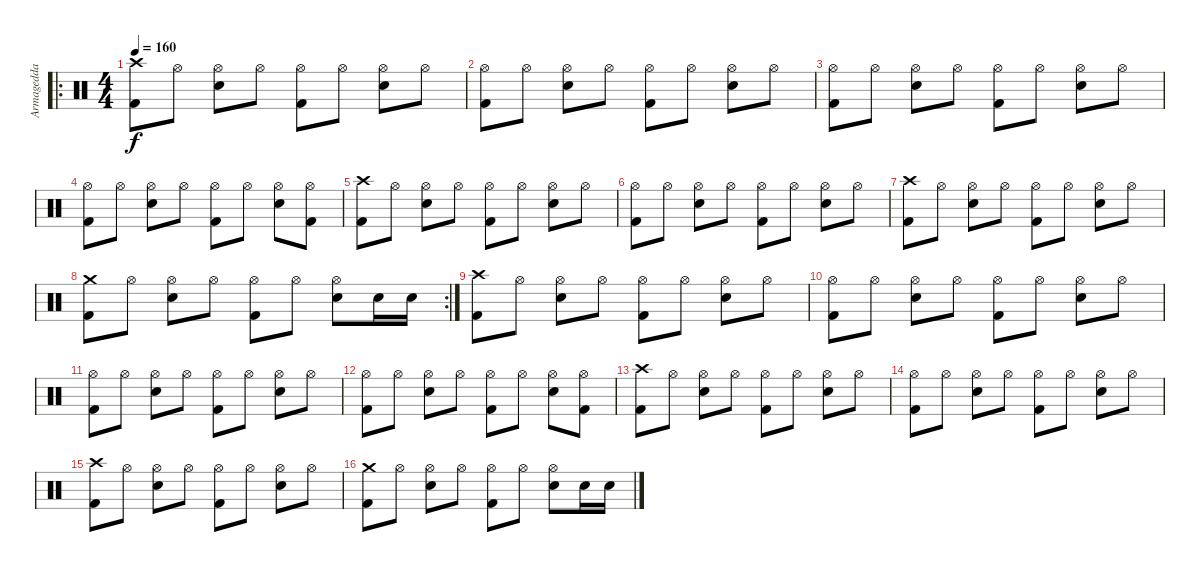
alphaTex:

\track ("Armagedda" "Armagedda") {instrument percussion}
\staff {score}
\articulation defaults
\ro
\ts (4 4)
\tempo 160
\clef neutral
\ks c
("Crash high (hit)" "Kick (hit) 2").8{dy f} "Hi-Hat (open)".8 ("Hi-Hat (open)" "Snare (hit) 2").8 "Hi-Hat (open)".8 ("Hi-Hat (open)" "Kick (hit) 2").8 "Hi-Hat (open)".8 ("Hi-Hat (open)" "Snare (hit) 2").8 "Hi-Hat (open)".8 |
("Hi-Hat (open)" "Kick (hit) 2").8 "Hi-Hat (open)".8 ("Hi-Hat (open)" "Snare (hit) 2").8 "Hi-Hat (open)".8 ("Hi-Hat (open)" "Kick (hit) 2").8 "Hi-Hat (open)".8 ("Hi-Hat (open)" "Snare (hit) 2").8 "Hi-Hat (open)".8 |
("Hi-Hat (open)" "Kick (hit) 2").8 "Hi-Hat (open)".8 ("Hi-Hat (open)" "Snare (hit) 2").8 "Hi-Hat (open)".8 ("Hi-Hat (open)" "Kick (hit) 2").8 "Hi-Hat (open)".8 ("Hi-Hat (open)" "Snare (hit) 2").8 "Hi-Hat (open)".8 |
("Hi-Hat (open)" "Kick (hit) 2").8 "Hi-Hat (open)".8 ("Hi-Hat (open)" "Snare (hit) 2").8 "Hi-Hat (open)".8 ("Hi-Hat (open)" "Kick (hit) 2").8 "Hi-Hat (open)".8 ("Hi-Hat (open)" "Snare (hit) 2").8 ("Hi-Hat (open)" "Kick (hit) 2").8 |
("Crash high (hit)" "Kick (hit) 2").8 "Hi-Hat (open)".8 ("Hi-Hat (open)" "Snare (hit) 2").8 "Hi-Hat (open)".8 ("Hi-Hat (open)" "Kick (hit) 2").8 "Hi-Hat (open)".8 ("Hi-Hat (open)" "Snare (hit) 2").8 "Hi-Hat (open)".8 |
("Hi-Hat (open)" "Kick (hit) 2").8 "Hi-Hat (open)".8 ("Hi-Hat (open)" "Snare (hit) 2").8 "Hi-Hat (open)".8 ("Hi-Hat (open)" "Kick (hit) 2").8 "Hi-Hat (open)".8 ("Hi-Hat (open)" "Snare (hit) 2").8 "Hi-Hat (open)".8 |
("Crash high (hit)" "Kick (hit) 2").8 "Hi-Hat (open)".8 ("Hi-Hat (open)" "Snare (hit) 2").8 "Hi-Hat (open)".8 ("Hi-Hat (open)" "Kick (hit) 2").8 "Hi-Hat (open)".8 ("Hi-Hat (open)" "Snare (hit) 2").8 "Hi-Hat (open)".8 |
\rc 2
("Crash medium (hit)" "Kick (hit) 2").8 "Hi-Hat (open)".8 ("Hi-Hat (open)" "Snare (hit) 2").8 "Hi-Hat (open)".8 ("Hi-Hat (open)" "Kick (hit) 2").8 "Hi-Hat (open)".8 ("Hi-Hat (open)" "Snare (hit) 2").8 "Snare (hit) 2".16 "Snare (hit) 2".16 |
("Crash high (hit)" "Kick (hit) 2").8 "Hi-Hat (open)".8 ("Hi-Hat (open)" "Snare (hit) 2").8 "Hi-Hat (open)".8 ("Hi-Hat (open)" "Kick (hit) 2").8 "Hi-Hat (open)".8 ("Hi-Hat (open)" "Snare (hit) 2").8 "Hi-Hat (open)".8 |
("Hi-Hat (open)" "Kick (hit) 2").8 "Hi-Hat (open)".8 ("Hi-Hat (open)" "Snare (hit) 2").8 "Hi-Hat (open)".8 ("Hi-Hat (open)" "Kick (hit) 2").8 "Hi-Hat (open)".8 ("Hi-Hat (open)" "Snare (hit) 2").8 "Hi-Hat (open)".8 |
("Hi-Hat (open)" "Kick (hit) 2").8 "Hi-Hat (open)".8 ("Hi-Hat (open)" "Snare (hit) 2").8 "Hi-Hat (open)".8 ("Hi-Hat (open)" "Kick (hit) 2").8 "Hi-Hat (open)".8 ("Hi-Hat (open)" "Snare (hit) 2").8 "Hi-Hat (open)".8 |
("Hi-Hat (open)" "Kick (hit) 2").8 "Hi-Hat (open)".8 ("Hi-Hat (open)" "Snare (hit) 2").8 "Hi-Hat (open)".8 ("Hi-Hat (open)" "Kick (hit) 2").8 "Hi-Hat (open)".8 ("Hi-Hat (open)" "Snare (hit) 2").8 ("Hi-Hat (open)" "Kick (hit) 2").8 |
("Crash high (hit)" "Kick (hit) 2").8 "Hi-Hat (open)".8 ("Hi-Hat (open)" "Snare (hit) 2").8 "Hi-Hat (open)".8 ("Hi-Hat (open)" "Kick (hit) 2").8 "Hi-Hat (open)".8 ("Hi-Hat (open)" "Snare (hit) 2").8 "Hi-Hat (open)".8 |
("Hi-Hat (open)" "Kick (hit) 2").8 "Hi-Hat (open)".8 ("Hi-Hat (open)" "Snare (hit) 2").8 "Hi-Hat (open)".8 ("Hi-Hat (open)" "Kick (hit) 2").8 "Hi-Hat (open)".8 ("Hi-Hat (open)" "Snare (hit) 2").8 "Hi-Hat (open)".8 |
("Crash high (hit)" "Kick (hit) 2").8 "Hi-Hat (open)".8 ("Hi-Hat (open)" "Snare (hit) 2").8 "Hi-Hat (open)".8 ("Hi-Hat (open)" "Kick (hit) 2").8 "Hi-Hat (open)".8 ("Hi-Hat (open)" "Snare (hit) 2").8 "Hi-Hat (open)".8 |
("Crash medium (hit)" "Kick (hit) 2").8 "Hi-Hat (open)".8 ("Hi-Hat (open)" "Snare (hit) 2").8 "Hi-Hat (open)".8 ("Hi-Hat (open)" "Kick (hit) 2").8 "Hi-Hat (open)".8 ("Hi-Hat (open)" "Snare (hit) 2").8 "Snare (hit) 2".16 "Snare (hit) 2".16
